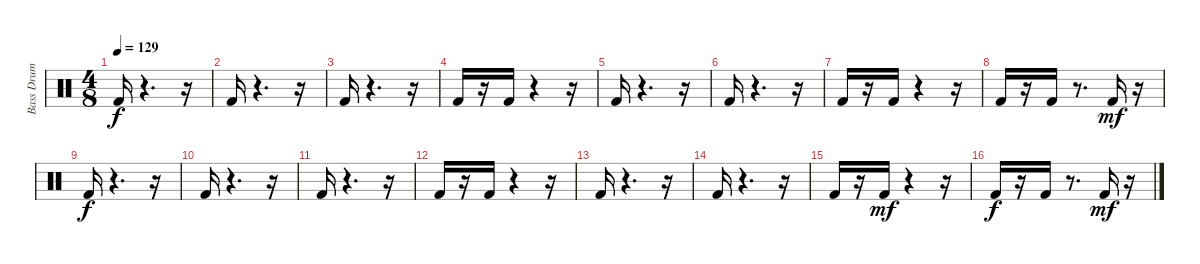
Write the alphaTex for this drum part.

\track ("Bass Drum" "Bass Drum") {instrument percussion}
\staff {score}
\articulation defaults
\ts (4 8)
\tempo 129
\clef neutral
\ks c "Kick (hit) 2".16{dy f}
r.4{d} r.16 |
"Kick (hit) 2".16 r.4{d} r.16 |
"Kick (hit) 2".16 r.4{d} r.16 |
"Kick (hit) 2".16 r.16 "Kick (hit) 2".16 r.4 r.16 |
"Kick (hit) 2".16 r.4{d} r.16 |
"Kick (hit) 2".16 r.4{d} r.16 |
"Kick (hit) 2".16 r.16 "Kick (hit) 2".16 r.4 r.16 |
"Kick (hit) 2".16 r.16 "Kick (hit) 2".16 r.8{d} "Kick (hit) 2".16{dy mf} r.16 |
"Kick (hit) 2".16{dy f} r.4{d} r.16 |
"Kick (hit) 2".16 r.4{d} r.16 |
"Kick (hit) 2".16 r.4{d} r.16 |
"Kick (hit) 2".16 r.16 "Kick (hit) 2".16 r.4 r.16 |
"Kick (hit) 2".16 r.4{d} r.16 |
"Kick (hit) 2".16 r.4{d} r.16 |
"Kick (hit) 2".16 r.16 "Kick (hit) 2".16{dy mf} r.4 r.16 |
"Kick (hit) 2".16{dy f} r.16 "Kick (hit) 2".16 r.8{d} "Kick (hit) 2".16{dy mf} r.16
